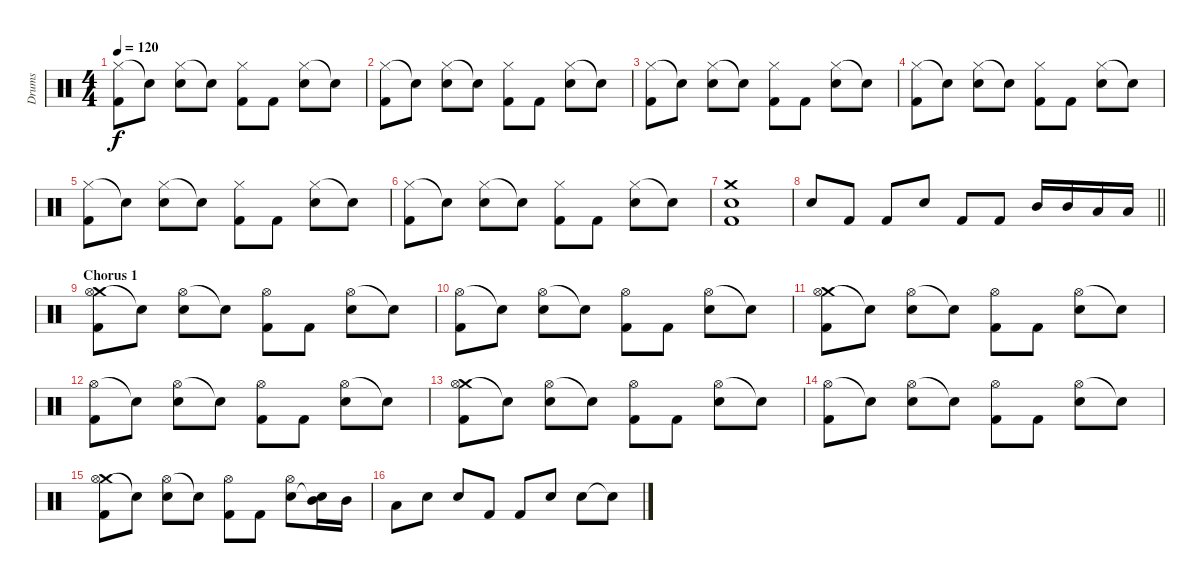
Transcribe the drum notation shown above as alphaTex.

\track ("Drums" "Drums") {instrument percussion}
\staff {score}
\articulation defaults
\ts (4 4)
\tempo 120
\clef neutral
\ks c
("Hi-Hat (closed)" "Kick (hit) 2").8{dy f} "Snare (hit)"{t}.8 ("Hi-Hat (closed)" "Electric Snare (hit)").8 "Snare (hit)"{t}.8 ("Hi-Hat (closed)" "Kick (hit) 2").8 "Kick (hit) 2".8 ("Hi-Hat (closed)" "Electric Snare (hit)").8 "Snare (hit)"{t}.8 |
("Hi-Hat (closed)" "Kick (hit) 2").8 "Snare (hit)"{t}.8 ("Hi-Hat (closed)" "Electric Snare (hit)").8 "Snare (hit)"{t}.8 ("Hi-Hat (closed)" "Kick (hit) 2").8 "Kick (hit) 2".8 ("Hi-Hat (closed)" "Electric Snare (hit)").8 "Snare (hit)"{t}.8 |
("Hi-Hat (closed)" "Kick (hit) 2").8 "Snare (hit)"{t}.8 ("Hi-Hat (closed)" "Electric Snare (hit)").8 "Snare (hit)"{t}.8 ("Hi-Hat (closed)" "Kick (hit) 2").8 "Kick (hit) 2".8 ("Hi-Hat (closed)" "Electric Snare (hit)").8 "Snare (hit)"{t}.8 |
("Hi-Hat (closed)" "Kick (hit) 2").8 "Snare (hit)"{t}.8 ("Hi-Hat (closed)" "Electric Snare (hit)").8 "Snare (hit)"{t}.8 ("Hi-Hat (closed)" "Kick (hit) 2").8 "Kick (hit) 2".8 ("Hi-Hat (closed)" "Electric Snare (hit)").8 "Snare (hit)"{t}.8 |
("Hi-Hat (closed)" "Kick (hit) 2").8 "Snare (hit)"{t}.8 ("Hi-Hat (closed)" "Electric Snare (hit)").8 "Snare (hit)"{t}.8 ("Hi-Hat (closed)" "Kick (hit) 2").8 "Kick (hit) 2".8 ("Hi-Hat (closed)" "Electric Snare (hit)").8 "Snare (hit)"{t}.8 |
("Hi-Hat (closed)" "Kick (hit) 2").8 "Snare (hit)"{t}.8 ("Hi-Hat (closed)" "Electric Snare (hit)").8 "Snare (hit)"{t}.8 ("Hi-Hat (closed)" "Kick (hit) 2").8 "Kick (hit) 2".8 ("Hi-Hat (closed)" "Electric Snare (hit)").8 "Snare (hit)"{t}.8 |
("Crash medium (hit)" "Electric Snare (hit)" "Kick (hit) 2").1 |
\barLineRight lightlight "Electric Snare (hit)".8 "Kick (hit) 2".8 "Kick (hit) 2".8 "Electric Snare (hit)".8 "Kick (hit) 2".8 "Kick (hit) 2".8 "Mid Tom (hit)".16 "Mid Tom (hit)".16 "Low Tom (hit)".16 "Low Tom (hit)".16
|
\section ("" "Chorus 1")
("Crash medium (hit)" "Hi-Hat (open)" "Kick (hit) 2").8 "Snare (hit)"{t}.8 ("Hi-Hat (open)" "Electric Snare (hit)").8 "Snare (hit)"{t}.8 ("Hi-Hat (open)" "Kick (hit) 2").8 "Kick (hit) 2".8 ("Hi-Hat (open)" "Electric Snare (hit)").8 "Snare (hit)"{t}.8 |
("Hi-Hat (open)" "Kick (hit) 2").8 "Snare (hit)"{t}.8 ("Hi-Hat (open)" "Electric Snare (hit)").8 "Snare (hit)"{t}.8 ("Hi-Hat (open)" "Kick (hit) 2").8 "Kick (hit) 2".8 ("Hi-Hat (open)" "Electric Snare (hit)").8 "Snare (hit)"{t}.8 |
("Crash medium (hit)" "Hi-Hat (open)" "Kick (hit) 2").8 "Snare (hit)"{t}.8 ("Hi-Hat (open)" "Electric Snare (hit)").8 "Snare (hit)"{t}.8 ("Hi-Hat (open)" "Kick (hit) 2").8 "Kick (hit) 2".8 ("Hi-Hat (open)" "Electric Snare (hit)").8 "Snare (hit)"{t}.8 |
("Hi-Hat (open)" "Kick (hit) 2").8 "Snare (hit)"{t}.8 ("Hi-Hat (open)" "Electric Snare (hit)").8 "Snare (hit)"{t}.8 ("Hi-Hat (open)" "Kick (hit) 2").8 "Kick (hit) 2".8 ("Hi-Hat (open)" "Electric Snare (hit)").8 "Snare (hit)"{t}.8 |
("Crash medium (hit)" "Hi-Hat (open)" "Kick (hit) 2").8 "Snare (hit)"{t}.8 ("Hi-Hat (open)" "Electric Snare (hit)").8 "Snare (hit)"{t}.8 ("Hi-Hat (open)" "Kick (hit) 2").8 "Kick (hit) 2".8 ("Hi-Hat (open)" "Electric Snare (hit)").8 "Snare (hit)"{t}.8 |
("Hi-Hat (open)" "Kick (hit) 2").8 "Snare (hit)"{t}.8 ("Hi-Hat (open)" "Electric Snare (hit)").8 "Snare (hit)"{t}.8 ("Hi-Hat (open)" "Kick (hit) 2").8 "Kick (hit) 2".8 ("Hi-Hat (open)" "Electric Snare (hit)").8 "Snare (hit)"{t}.8 |
("Crash medium (hit)" "Hi-Hat (open)" "Kick (hit) 2").8 "Snare (hit)"{t}.8 ("Hi-Hat (open)" "Electric Snare (hit)").8 "Snare (hit)"{t}.8 ("Hi-Hat (open)" "Kick (hit) 2").8 "Kick (hit) 2".8 ("Hi-Hat (open)" "Electric Snare (hit)").8 ("Mid Tom (hit)" "Snare (hit)"{t}).16 "Mid Tom (hit)".16 |
"Low Tom (hit)".8 "Electric Snare (hit)".8 "Electric Snare (hit)".8 "Kick (hit) 2".8 "Kick (hit) 2".8 "Electric Snare (hit)".8 "Electric Snare (hit)".8 "Snare (hit)"{t}.8
